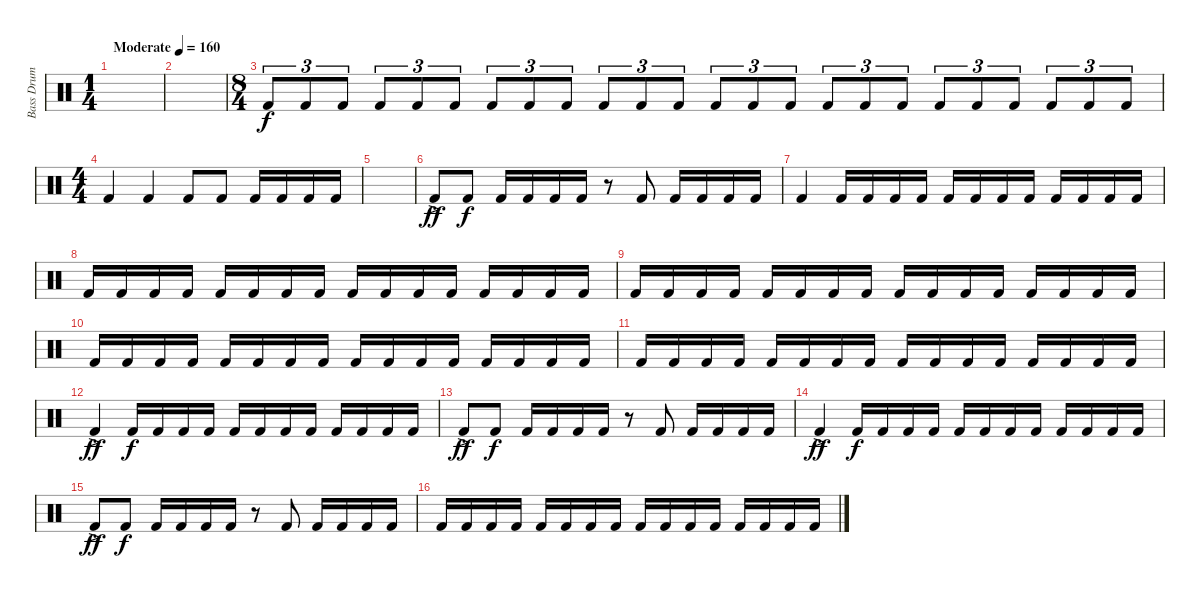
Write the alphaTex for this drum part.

\track ("Bass Drum" "Bass Drum") {instrument percussion}
\staff {score}
\articulation defaults
\ts (1 4)
\tempo (160 "Moderate")
\clef neutral
\ks c
|
|
\ts (8 4)
"Kick (hit) 2".8{tu (3 2)} "Kick (hit) 2".8{tu (3 2)} "Kick (hit) 2".8{tu (3 2)} "Kick (hit) 2".8{tu (3 2)} "Kick (hit) 2".8{tu (3 2)} "Kick (hit) 2".8{tu (3 2)} "Kick (hit) 2".8{tu (3 2)} "Kick (hit) 2".8{tu (3 2)} "Kick (hit) 2".8{tu (3 2)} "Kick (hit) 2".8{tu (3 2)} "Kick (hit) 2".8{tu (3 2)} "Kick (hit) 2".8{tu (3 2)} "Kick (hit) 2".8{tu (3 2)} "Kick (hit) 2".8{tu (3 2)} "Kick (hit) 2".8{tu (3 2)} "Kick (hit) 2".8{tu (3 2)} "Kick (hit) 2".8{tu (3 2)} "Kick (hit) 2".8{tu (3 2)} "Kick (hit) 2".8{tu (3 2)} "Kick (hit) 2".8{tu (3 2)} "Kick (hit) 2".8{tu (3 2)} "Kick (hit) 2".8{tu (3 2)} "Kick (hit) 2".8{tu (3 2)} "Kick (hit) 2".8{tu (3 2)} |
\ts (4 4)
"Kick (hit) 2".4 "Kick (hit) 2".4 "Kick (hit) 2".8 "Kick (hit) 2".8 "Kick (hit) 2".16 "Kick (hit) 2".16 "Kick (hit) 2".16 "Kick (hit) 2".16 |
|
"Kick (hit) 2"{ac}.8{dy ff} "Kick (hit) 2".8{dy f} "Kick (hit) 2".16 "Kick (hit) 2".16 "Kick (hit) 2".16 "Kick (hit) 2".16 r.8 "Kick (hit) 2".8 "Kick (hit) 2".16 "Kick (hit) 2".16 "Kick (hit) 2".16 "Kick (hit) 2".16 |
"Kick (hit) 2".4 "Kick (hit) 2".16 "Kick (hit) 2".16 "Kick (hit) 2".16 "Kick (hit) 2".16 "Kick (hit) 2".16 "Kick (hit) 2".16 "Kick (hit) 2".16 "Kick (hit) 2".16 "Kick (hit) 2".16 "Kick (hit) 2".16 "Kick (hit) 2".16 "Kick (hit) 2".16 |
"Kick (hit) 2".16 "Kick (hit) 2".16 "Kick (hit) 2".16 "Kick (hit) 2".16 "Kick (hit) 2".16 "Kick (hit) 2".16 "Kick (hit) 2".16 "Kick (hit) 2".16 "Kick (hit) 2".16 "Kick (hit) 2".16 "Kick (hit) 2".16 "Kick (hit) 2".16 "Kick (hit) 2".16 "Kick (hit) 2".16 "Kick (hit) 2".16 "Kick (hit) 2".16 |
"Kick (hit) 2".16 "Kick (hit) 2".16 "Kick (hit) 2".16 "Kick (hit) 2".16 "Kick (hit) 2".16 "Kick (hit) 2".16 "Kick (hit) 2".16 "Kick (hit) 2".16 "Kick (hit) 2".16 "Kick (hit) 2".16 "Kick (hit) 2".16 "Kick (hit) 2".16 "Kick (hit) 2".16 "Kick (hit) 2".16 "Kick (hit) 2".16 "Kick (hit) 2".16 |
"Kick (hit) 2".16 "Kick (hit) 2".16 "Kick (hit) 2".16 "Kick (hit) 2".16 "Kick (hit) 2".16 "Kick (hit) 2".16 "Kick (hit) 2".16 "Kick (hit) 2".16 "Kick (hit) 2".16 "Kick (hit) 2".16 "Kick (hit) 2".16 "Kick (hit) 2".16 "Kick (hit) 2".16 "Kick (hit) 2".16 "Kick (hit) 2".16 "Kick (hit) 2".16 |
"Kick (hit) 2".16 "Kick (hit) 2".16 "Kick (hit) 2".16 "Kick (hit) 2".16 "Kick (hit) 2".16 "Kick (hit) 2".16 "Kick (hit) 2".16 "Kick (hit) 2".16 "Kick (hit) 2".16 "Kick (hit) 2".16 "Kick (hit) 2".16 "Kick (hit) 2".16 "Kick (hit) 2".16 "Kick (hit) 2".16 "Kick (hit) 2".16 "Kick (hit) 2".16 |
"Kick (hit) 2"{ac}.4{dy ff} "Kick (hit) 2".16{dy f} "Kick (hit) 2".16 "Kick (hit) 2".16 "Kick (hit) 2".16 "Kick (hit) 2".16 "Kick (hit) 2".16 "Kick (hit) 2".16 "Kick (hit) 2".16 "Kick (hit) 2".16 "Kick (hit) 2".16 "Kick (hit) 2".16 "Kick (hit) 2".16 |
"Kick (hit) 2"{ac}.8{dy ff} "Kick (hit) 2".8{dy f} "Kick (hit) 2".16 "Kick (hit) 2".16 "Kick (hit) 2".16 "Kick (hit) 2".16 r.8 "Kick (hit) 2".8 "Kick (hit) 2".16 "Kick (hit) 2".16 "Kick (hit) 2".16 "Kick (hit) 2".16 |
"Kick (hit) 2"{ac}.4{dy ff} "Kick (hit) 2".16{dy f} "Kick (hit) 2".16 "Kick (hit) 2".16 "Kick (hit) 2".16 "Kick (hit) 2".16 "Kick (hit) 2".16 "Kick (hit) 2".16 "Kick (hit) 2".16 "Kick (hit) 2".16 "Kick (hit) 2".16 "Kick (hit) 2".16 "Kick (hit) 2".16 |
"Kick (hit) 2"{ac}.8{dy ff} "Kick (hit) 2".8{dy f} "Kick (hit) 2".16 "Kick (hit) 2".16 "Kick (hit) 2".16 "Kick (hit) 2".16 r.8 "Kick (hit) 2".8 "Kick (hit) 2".16 "Kick (hit) 2".16 "Kick (hit) 2".16 "Kick (hit) 2".16 |
"Kick (hit) 2".16 "Kick (hit) 2".16 "Kick (hit) 2".16 "Kick (hit) 2".16 "Kick (hit) 2".16 "Kick (hit) 2".16 "Kick (hit) 2".16 "Kick (hit) 2".16 "Kick (hit) 2".16 "Kick (hit) 2".16 "Kick (hit) 2".16 "Kick (hit) 2".16 "Kick (hit) 2".16 "Kick (hit) 2".16 "Kick (hit) 2".16 "Kick (hit) 2".16
